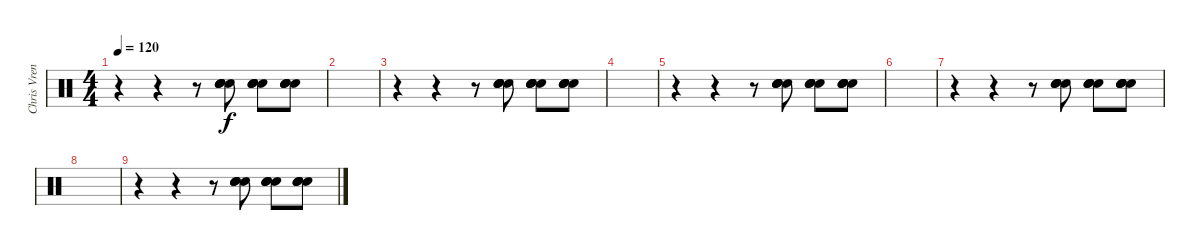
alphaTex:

\track ("Chris Vrenna" "Chris Vren") {instrument percussion}
\staff {score}
\articulation defaults
\ts (4 4)
\tempo 120
\clef neutral
\ks c
r.4{dy f} r.4 r.8 ("Hand Clap (hit)" "Hand Clap (hit)" "Hand Clap (hit)" "Hand Clap (hit)").8 ("Hand Clap (hit)" "Hand Clap (hit)" "Hand Clap (hit)" "Hand Clap (hit)").8 ("Hand Clap (hit)" "Hand Clap (hit)" "Hand Clap (hit)" "Hand Clap (hit)").8 |
|
r.4 r.4 r.8 ("Hand Clap (hit)" "Hand Clap (hit)" "Hand Clap (hit)" "Hand Clap (hit)").8 ("Hand Clap (hit)" "Hand Clap (hit)" "Hand Clap (hit)" "Hand Clap (hit)").8 ("Hand Clap (hit)" "Hand Clap (hit)" "Hand Clap (hit)" "Hand Clap (hit)").8 |
|
r.4 r.4 r.8 ("Hand Clap (hit)" "Hand Clap (hit)" "Hand Clap (hit)" "Hand Clap (hit)").8 ("Hand Clap (hit)" "Hand Clap (hit)" "Hand Clap (hit)" "Hand Clap (hit)").8 ("Hand Clap (hit)" "Hand Clap (hit)" "Hand Clap (hit)" "Hand Clap (hit)").8 |
|
r.4 r.4 r.8 ("Hand Clap (hit)" "Hand Clap (hit)" "Hand Clap (hit)" "Hand Clap (hit)").8 ("Hand Clap (hit)" "Hand Clap (hit)" "Hand Clap (hit)" "Hand Clap (hit)").8 ("Hand Clap (hit)" "Hand Clap (hit)" "Hand Clap (hit)" "Hand Clap (hit)").8 |
|
r.4 r.4 r.8 ("Hand Clap (hit)" "Hand Clap (hit)" "Hand Clap (hit)" "Hand Clap (hit)").8 ("Hand Clap (hit)" "Hand Clap (hit)" "Hand Clap (hit)" "Hand Clap (hit)").8 ("Hand Clap (hit)" "Hand Clap (hit)" "Hand Clap (hit)" "Hand Clap (hit)").8
